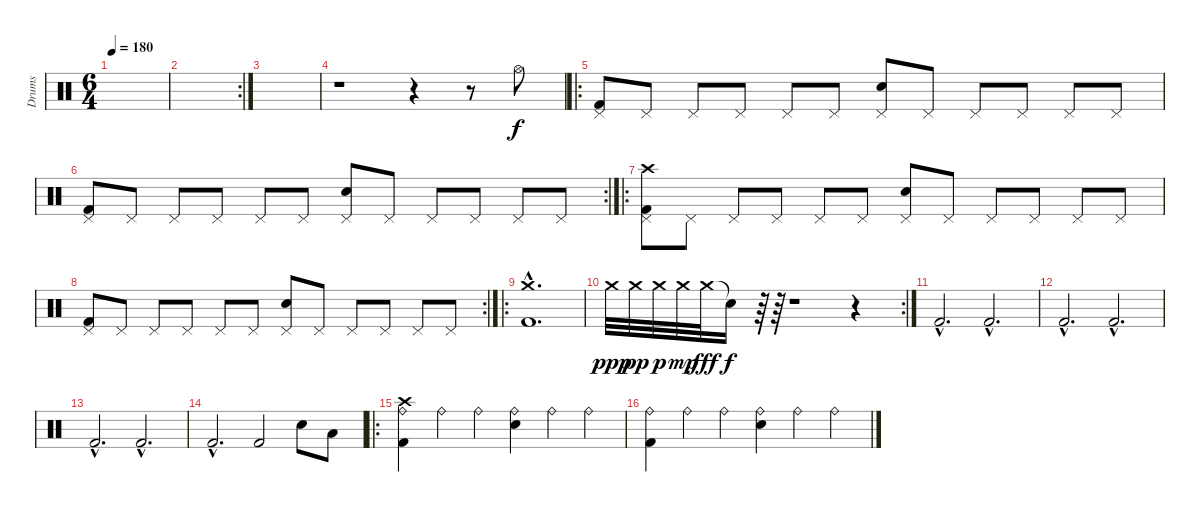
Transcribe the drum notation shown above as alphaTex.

\track ("Drums" "Drums") {instrument percussion}
\staff {score}
\articulation defaults
\ts (6 4)
\tempo 180
\clef neutral
\ks c
|
\rc 2
|
|
r.1 r.4 r.8 "Hi-Hat (open)".8 |
\ro
("Kick (hit) 2" "Pedal Hi-Hat (hit)").8 "Pedal Hi-Hat (hit)".8 "Pedal Hi-Hat (hit)".8 "Pedal Hi-Hat (hit)".8 "Pedal Hi-Hat (hit)".8 "Pedal Hi-Hat (hit)".8 ("Electric Snare (hit)" "Pedal Hi-Hat (hit)").8 "Pedal Hi-Hat (hit)".8 "Pedal Hi-Hat (hit)".8 "Pedal Hi-Hat (hit)".8 "Pedal Hi-Hat (hit)".8 "Pedal Hi-Hat (hit)".8 |
\rc 2
("Kick (hit) 2" "Pedal Hi-Hat (hit)").8 "Pedal Hi-Hat (hit)".8 "Pedal Hi-Hat (hit)".8 "Pedal Hi-Hat (hit)".8 "Pedal Hi-Hat (hit)".8 "Pedal Hi-Hat (hit)".8 ("Electric Snare (hit)" "Pedal Hi-Hat (hit)").8 "Pedal Hi-Hat (hit)".8 "Pedal Hi-Hat (hit)".8 "Pedal Hi-Hat (hit)".8 "Pedal Hi-Hat (hit)".8 "Pedal Hi-Hat (hit)".8 |
\ro
("Kick (hit) 2" "Pedal Hi-Hat (hit)" "Crash high (hit)").8 "Pedal Hi-Hat (hit)".8 "Pedal Hi-Hat (hit)".8 "Pedal Hi-Hat (hit)".8 "Pedal Hi-Hat (hit)".8 "Pedal Hi-Hat (hit)".8 ("Electric Snare (hit)" "Pedal Hi-Hat (hit)").8 "Pedal Hi-Hat (hit)".8 "Pedal Hi-Hat (hit)".8 "Pedal Hi-Hat (hit)".8 "Pedal Hi-Hat (hit)".8 "Pedal Hi-Hat (hit)".8 |
\rc 2
("Kick (hit) 2" "Pedal Hi-Hat (hit)").8 "Pedal Hi-Hat (hit)".8 "Pedal Hi-Hat (hit)".8 "Pedal Hi-Hat (hit)".8 "Pedal Hi-Hat (hit)".8 "Pedal Hi-Hat (hit)".8 ("Electric Snare (hit)" "Pedal Hi-Hat (hit)").8 "Pedal Hi-Hat (hit)".8 "Pedal Hi-Hat (hit)".8 "Pedal Hi-Hat (hit)".8 "Pedal Hi-Hat (hit)".8 "Pedal Hi-Hat (hit)".8 |
\ro
("Crash medium (hit)"{hac} "Kick (hit) 2"{hac}).1{d} |
\rc 2 "Crash medium (hit)".32{dy ppp} "Crash medium (hit)".32{dy pp} "Crash medium (hit)".32{dy p} "Crash medium (hit)".32{dy mp} "Crash medium (hit)".32{dy fff} "Snare (hit)"{t}.16{dy f}
r.64 r.64 r.1 r.4 |
"Kick (hit) 2"{hac}.2{d} "Kick (hit) 2"{hac}.2{d} |
"Kick (hit) 2"{hac}.2{d} "Kick (hit) 2"{hac}.2{d} |
"Kick (hit) 2"{hac}.2{d} "Kick (hit) 2"{hac}.2{d} |
"Kick (hit) 2"{hac}.2{d} "Kick (hit) 2".2 "Electric Snare (hit)".8 "Low Tom (hit)".8 |
\ro
("Crash high (hit)" "Ride (bell)" "Kick (hit) 2").4 "Ride (bell)".4 "Ride (bell)".4 ("Ride (bell)" "Electric Snare (hit)").4 "Ride (bell)".4 "Ride (bell)".4 |
("Ride (bell)" "Kick (hit) 2").4 "Ride (bell)".4 "Ride (bell)".4 ("Ride (bell)" "Electric Snare (hit)").4 "Ride (bell)".4 "Ride (bell)".4
